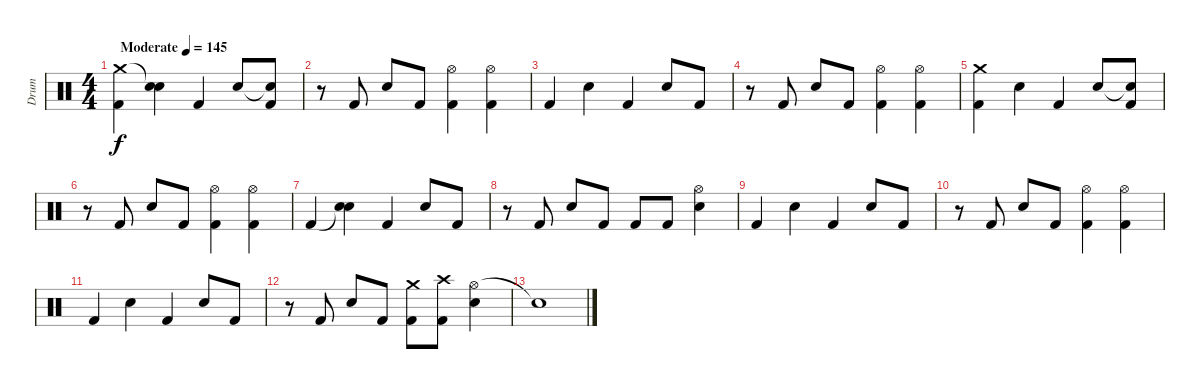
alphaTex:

\track ("Drum" "Drum") {instrument percussion}
\staff {score}
\articulation defaults
\ts (4 4)
\tempo (145 "Moderate")
\clef neutral
\ks c
("Crash medium (hit)" "Kick (hit) 2").4{dy f} ("Snare (hit)"{t} "Snare (hit) 2").4 "Kick (hit) 2".4 "Snare (hit) 2".8 ("Snare (hit)"{t} "Kick (hit) 2").8 |
r.8 "Kick (hit) 2".8 "Snare (hit) 2".8 "Kick (hit) 2".8 ("Hi-Hat (open)" "Kick (hit) 2").4 ("Hi-Hat (open)" "Kick (hit) 2").4 |
"Kick (hit) 2".4 "Snare (hit) 2".4 "Kick (hit) 2".4 "Snare (hit) 2".8 "Kick (hit) 2".8 |
r.8 "Kick (hit) 2".8 "Snare (hit) 2".8 "Kick (hit) 2".8 ("Hi-Hat (open)" "Kick (hit) 2").4 ("Hi-Hat (open)" "Kick (hit) 2").4 |
("Crash medium (hit)" "Kick (hit) 2").4 "Snare (hit) 2".4 "Kick (hit) 2".4 "Snare (hit) 2".8 ("Snare (hit)"{t} "Kick (hit) 2").8 |
r.8 "Kick (hit) 2".8 "Snare (hit) 2".8 "Kick (hit) 2".8 ("Hi-Hat (open)" "Kick (hit) 2").4 ("Hi-Hat (open)" "Kick (hit) 2").4 |
"Kick (hit) 2".4 ("Snare (hit)"{t} "Snare (hit) 2").4 "Kick (hit) 2".4 "Snare (hit) 2".8 "Kick (hit) 2".8 |
r.8 "Kick (hit) 2".8 "Snare (hit) 2".8 "Kick (hit) 2".8 "Kick (hit) 2".8 "Kick (hit) 2".8 ("Hi-Hat (open)" "Snare (hit) 2").4 |
"Kick (hit) 2".4 "Snare (hit) 2".4 "Kick (hit) 2".4 "Snare (hit) 2".8 "Kick (hit) 2".8 |
r.8 "Kick (hit) 2".8 "Snare (hit) 2".8 "Kick (hit) 2".8 ("Hi-Hat (open)" "Kick (hit) 2").4 ("Hi-Hat (open)" "Kick (hit) 2").4 |
"Kick (hit) 2".4 "Snare (hit) 2".4 "Kick (hit) 2".4 "Snare (hit) 2".8 "Kick (hit) 2".8 |
r.8 "Kick (hit) 2".8 "Snare (hit) 2".8 "Kick (hit) 2".8 ("Crash medium (hit)" "Kick (hit) 2").8 ("Crash high (hit)" "Kick (hit) 2").8 ("Hi-Hat (open)" "Snare (hit) 2").4 |
"Snare (hit)"{t}.1
